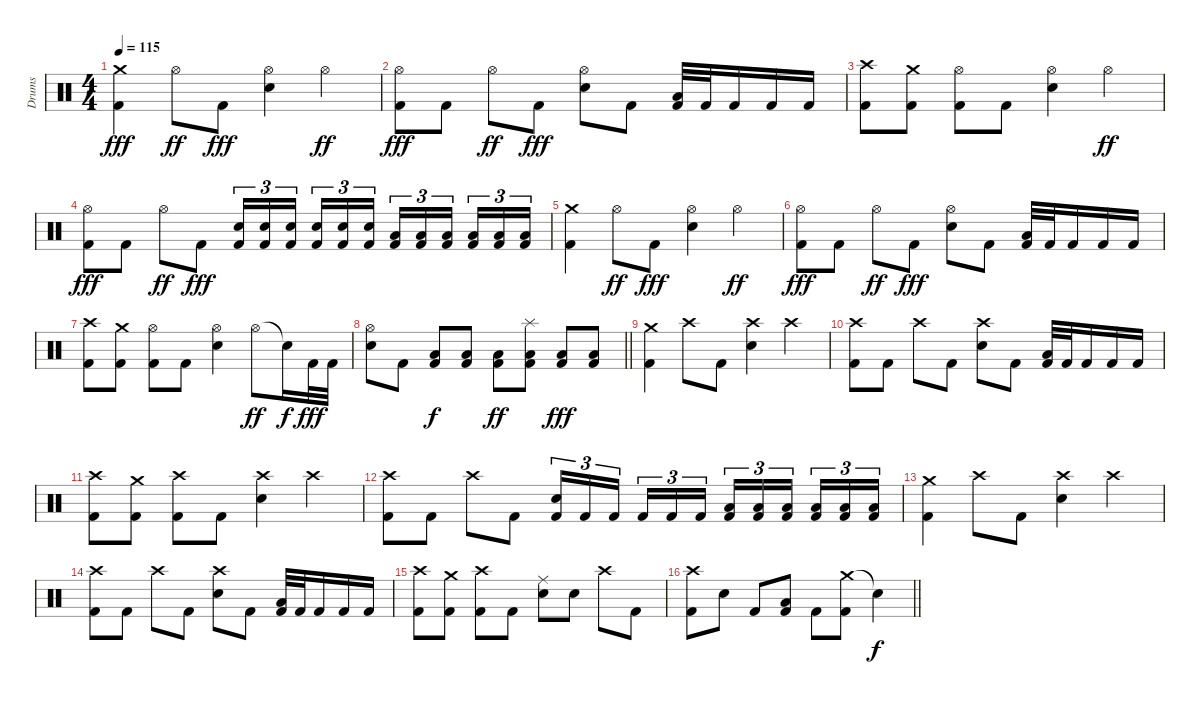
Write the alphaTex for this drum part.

\track ("Drums" "Drums") {instrument percussion}
\staff {score}
\articulation defaults
\ts (4 4)
\section ("" "")
\tempo 115
\clef neutral
\ks c
("Crash medium (hit)" "Kick (hit) 2").4{dy fff} "Hi-Hat (open)".8{dy ff} "Kick (hit) 2".8{dy fff} ("Hi-Hat (open)" "Snare (hit) 2").4 "Hi-Hat (open)".4{dy ff} |
("Hi-Hat (open)" "Kick (hit) 2").8{dy fff} "Kick (hit) 2".8 "Hi-Hat (open)".8{dy ff} "Kick (hit) 2".8{dy fff} ("Hi-Hat (open)" "Snare (hit) 2").8 "Kick (hit) 2".8 ("Low Tom (hit)" "Kick (hit) 2").32 "Kick (hit) 2".32 "Kick (hit) 2".16 "Kick (hit) 2".16 "Kick (hit) 2".16 |
("Crash high (hit)" "Kick (hit) 2").8 ("Crash medium (hit)" "Kick (hit) 2").8 ("Hi-Hat (open)" "Kick (hit) 2").8 "Kick (hit) 2".8 ("Hi-Hat (open)" "Snare (hit) 2").4 "Hi-Hat (open)".4{dy ff} |
("Hi-Hat (open)" "Kick (hit) 2").8{dy fff} "Kick (hit) 2".8 "Hi-Hat (open)".8{dy ff} "Kick (hit) 2".8{dy fff} ("Snare (hit) 2" "Kick (hit) 2").16{tu (3 2)} ("Snare (hit) 2" "Kick (hit) 2").16{tu (3 2)} ("Snare (hit) 2" "Kick (hit) 2").16{tu (3 2) beam splitsecondary} ("Snare (hit) 2" "Kick (hit) 2").16{tu (3 2)} ("Snare (hit) 2" "Kick (hit) 2").16{tu (3 2)} ("Snare (hit) 2" "Kick (hit) 2").16{tu (3 2)} ("Low Tom (hit)" "Kick (hit) 2").16{tu (3 2)} ("Low Tom (hit)" "Kick (hit) 2").16{tu (3 2)} ("Low Tom (hit)" "Kick (hit) 2").16{tu (3 2) beam splitsecondary} ("Low Tom (hit)" "Kick (hit) 2").16{tu (3 2)} ("Low Tom (hit)" "Kick (hit) 2").16{tu (3 2)} ("Low Tom (hit)" "Kick (hit) 2").16{tu (3 2)} |
("Crash medium (hit)" "Kick (hit) 2").4 "Hi-Hat (open)".8{dy ff} "Kick (hit) 2".8{dy fff} ("Hi-Hat (open)" "Snare (hit) 2").4 "Hi-Hat (open)".4{dy ff} |
("Hi-Hat (open)" "Kick (hit) 2").8{dy fff} "Kick (hit) 2".8 "Hi-Hat (open)".8{dy ff} "Kick (hit) 2".8{dy fff} ("Hi-Hat (open)" "Snare (hit) 2").8 "Kick (hit) 2".8 ("Low Tom (hit)" "Kick (hit) 2").32 "Kick (hit) 2".32 "Kick (hit) 2".16 "Kick (hit) 2".16 "Kick (hit) 2".16 |
("Crash high (hit)" "Kick (hit) 2").8 ("Crash medium (hit)" "Kick (hit) 2").8 ("Hi-Hat (open)" "Kick (hit) 2").8 "Kick (hit) 2".8 ("Hi-Hat (open)" "Snare (hit) 2").4 "Hi-Hat (open)".8{dy ff} "Snare (hit)"{t}.16{dy f} "Kick (hit) 2".32{dy fff} "Kick (hit) 2".32 |
\barLineRight lightlight
("Hi-Hat (open)" "Snare (hit) 2").8 "Kick (hit) 2".8 ("Low Tom (hit)" "Kick (hit) 2").8{dy f} ("Low Tom (hit)" "Kick (hit) 2").8 ("Low Tom (hit)" "Kick (hit) 2").8{dy ff} ("Splash (hit)" "Low Tom (hit)" "Kick (hit) 2").8 ("Low Tom (hit)" "Kick (hit) 2").8{dy fff} ("Low Tom (hit)" "Kick (hit) 2").8 |
("Crash medium (hit)" "Kick (hit) 2").4 "Crash high (hit)".8 "Kick (hit) 2".8 ("Crash high (hit)" "Snare (hit) 2").4 "Crash high (hit)".4 |
("Crash high (hit)" "Kick (hit) 2").8 "Kick (hit) 2".8 "Crash high (hit)".8 "Kick (hit) 2".8 ("Crash high (hit)" "Snare (hit) 2").8 "Kick (hit) 2".8 ("Low Tom (hit)" "Kick (hit) 2").32 "Kick (hit) 2".32 "Kick (hit) 2".16 "Kick (hit) 2".16 "Kick (hit) 2".16 |
("Crash high (hit)" "Kick (hit) 2").8 ("Crash medium (hit)" "Kick (hit) 2").8 ("Crash high (hit)" "Kick (hit) 2").8 "Kick (hit) 2".8 ("Crash high (hit)" "Snare (hit) 2").4 "Crash high (hit)".4 |
("Crash high (hit)" "Kick (hit) 2").8 "Kick (hit) 2".8 "Crash high (hit)".8 "Kick (hit) 2".8 ("Snare (hit) 2" "Kick (hit) 2").16{tu (3 2)} "Kick (hit) 2".16{tu (3 2)} "Kick (hit) 2".16{tu (3 2) beam splitsecondary} "Kick (hit) 2".16{tu (3 2)} "Kick (hit) 2".16{tu (3 2)} "Kick (hit) 2".16{tu (3 2)} ("Low Tom (hit)" "Kick (hit) 2").16{tu (3 2)} ("Low Tom (hit)" "Kick (hit) 2").16{tu (3 2)} ("Low Tom (hit)" "Kick (hit) 2").16{tu (3 2) beam splitsecondary} ("Low Tom (hit)" "Kick (hit) 2").16{tu (3 2)} ("Low Tom (hit)" "Kick (hit) 2").16{tu (3 2)} ("Low Tom (hit)" "Kick (hit) 2").16{tu (3 2)} |
("Crash medium (hit)" "Kick (hit) 2").4 "Crash high (hit)".8 "Kick (hit) 2".8 ("Crash high (hit)" "Snare (hit) 2").4 "Crash high (hit)".4 |
("Crash high (hit)" "Kick (hit) 2").8 "Kick (hit) 2".8 "Crash high (hit)".8 "Kick (hit) 2".8 ("Crash high (hit)" "Snare (hit) 2").8 "Kick (hit) 2".8 ("Low Tom (hit)" "Kick (hit) 2").32 "Kick (hit) 2".32 "Kick (hit) 2".16 "Kick (hit) 2".16 "Kick (hit) 2".16 |
("Crash high (hit)" "Kick (hit) 2").8 ("Crash medium (hit)" "Kick (hit) 2").8 ("Crash high (hit)" "Kick (hit) 2").8 "Kick (hit) 2".8 ("Ride (middle)" "Snare (hit) 2").8 "Snare (hit) 2".8 "Crash high (hit)".8 "Kick (hit) 2".8 |
\barLineRight lightlight
("Crash high (hit)" "Kick (hit) 2").8 "Snare (hit) 2".8 "Kick (hit) 2".8 ("Low Tom (hit)" "Kick (hit) 2").8 "Kick (hit) 2".8 ("Crash medium (hit)" "Kick (hit) 2").8 "Snare (hit)"{t}.4{dy f}
